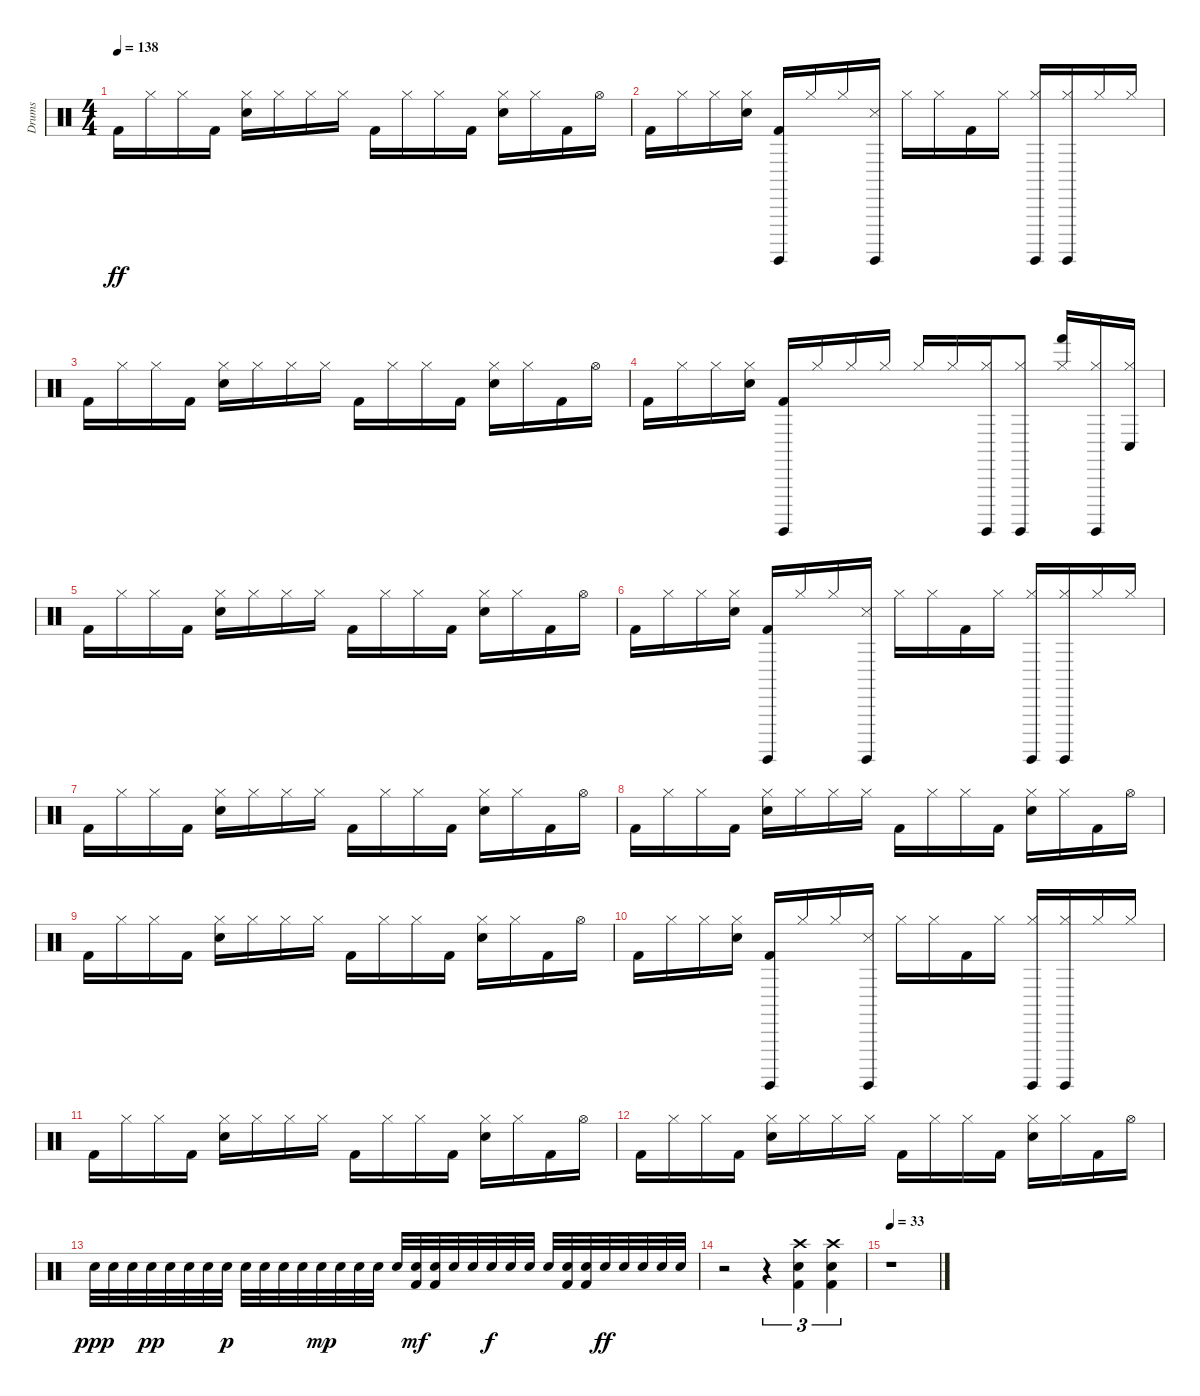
\track ("Drums" "Drums") {instrument percussion}
\staff {score}
\articulation defaults
\ts (4 4)
\tempo 138
\clef neutral
\ks c "Kick (hit) 2".16{dy ff} "Hi-Hat (closed)".16 "Hi-Hat (closed)".16 "Kick (hit) 2".16
("Electric Snare (hit)" "Hi-Hat (closed)").16 "Hi-Hat (closed)".16 "Hi-Hat (closed)".16 "Hi-Hat (closed)".16 "Kick (hit) 2".16 "Hi-Hat (closed)".16 "Hi-Hat (closed)".16 "Kick (hit) 2".16 ("Electric Snare (hit)" "Hi-Hat (closed)").16 "Hi-Hat (closed)".16 "Kick (hit) 2".16 "Hi-Hat (open)".16 |
"Kick (hit) 2".16 "Hi-Hat (closed)".16 "Hi-Hat (closed)".16 ("Electric Snare (hit)" "Hi-Hat (closed)").16 ("Kick (hit) 2" "Surdo (hit)").16 "Hi-Hat (closed)".16 "Hi-Hat (closed)".16 ("Snare (side stick) 3" "Surdo (hit)").16 "Hi-Hat (closed)".16 "Hi-Hat (closed)".16 "Kick (hit) 2".16 "Hi-Hat (closed)".16 ("Hi-Hat (closed)" "Surdo (hit)").16 ("Hi-Hat (closed)" "Surdo (hit)").16 "Hi-Hat (closed)".16 "Hi-Hat (closed)".16 |
"Kick (hit) 2".16 "Hi-Hat (closed)".16 "Hi-Hat (closed)".16 "Kick (hit) 2".16 ("Electric Snare (hit)" "Hi-Hat (closed)").16 "Hi-Hat (closed)".16 "Hi-Hat (closed)".16 "Hi-Hat (closed)".16 "Kick (hit) 2".16 "Hi-Hat (closed)".16 "Hi-Hat (closed)".16 "Kick (hit) 2".16 ("Electric Snare (hit)" "Hi-Hat (closed)").16 "Hi-Hat (closed)".16 "Kick (hit) 2".16 "Hi-Hat (open)".16 |
"Kick (hit) 2".16 "Hi-Hat (closed)".16 "Hi-Hat (closed)".16 ("Electric Snare (hit)" "Hi-Hat (closed)").16 ("Kick (hit) 2" "Surdo (hit)").16 "Hi-Hat (closed)".16 "Hi-Hat (closed)".16 "Hi-Hat (closed)".16 "Hi-Hat (closed)".16 "Hi-Hat (closed)".16 ("Hi-Hat (closed)" "Surdo (hit)").16 ("Hi-Hat (closed)" "Surdo (hit)").8 ("Hi-Hat (closed)" "Hand (hit)").16 ("Hi-Hat (closed)" "Surdo (hit)").16 ("Hi-Hat (closed)" "Conga low (hit)").16 |
"Kick (hit) 2".16 "Hi-Hat (closed)".16 "Hi-Hat (closed)".16 "Kick (hit) 2".16 ("Electric Snare (hit)" "Hi-Hat (closed)").16 "Hi-Hat (closed)".16 "Hi-Hat (closed)".16 "Hi-Hat (closed)".16 "Kick (hit) 2".16 "Hi-Hat (closed)".16 "Hi-Hat (closed)".16 "Kick (hit) 2".16 ("Electric Snare (hit)" "Hi-Hat (closed)").16 "Hi-Hat (closed)".16 "Kick (hit) 2".16 "Hi-Hat (open)".16 |
"Kick (hit) 2".16 "Hi-Hat (closed)".16 "Hi-Hat (closed)".16 ("Electric Snare (hit)" "Hi-Hat (closed)").16 ("Kick (hit) 2" "Surdo (hit)").16 "Hi-Hat (closed)".16 "Hi-Hat (closed)".16 ("Snare (side stick) 3" "Surdo (hit)").16 "Hi-Hat (closed)".16 "Hi-Hat (closed)".16 "Kick (hit) 2".16 "Hi-Hat (closed)".16 ("Hi-Hat (closed)" "Surdo (hit)").16 ("Hi-Hat (closed)" "Surdo (hit)").16 "Hi-Hat (closed)".16 "Hi-Hat (closed)".16 |
"Kick (hit) 2".16 "Hi-Hat (closed)".16 "Hi-Hat (closed)".16 "Kick (hit) 2".16 ("Electric Snare (hit)" "Hi-Hat (closed)").16 "Hi-Hat (closed)".16 "Hi-Hat (closed)".16 "Hi-Hat (closed)".16 "Kick (hit) 2".16 "Hi-Hat (closed)".16 "Hi-Hat (closed)".16 "Kick (hit) 2".16 ("Electric Snare (hit)" "Hi-Hat (closed)").16 "Hi-Hat (closed)".16 "Kick (hit) 2".16 "Hi-Hat (open)".16 |
"Kick (hit) 2".16 "Hi-Hat (closed)".16 "Hi-Hat (closed)".16 "Kick (hit) 2".16 ("Electric Snare (hit)" "Hi-Hat (closed)").16 "Hi-Hat (closed)".16 "Hi-Hat (closed)".16 "Hi-Hat (closed)".16 "Kick (hit) 2".16 "Hi-Hat (closed)".16 "Hi-Hat (closed)".16 "Kick (hit) 2".16 ("Electric Snare (hit)" "Hi-Hat (closed)").16 "Hi-Hat (closed)".16 "Kick (hit) 2".16 "Hi-Hat (open)".16 |
"Kick (hit) 2".16 "Hi-Hat (closed)".16 "Hi-Hat (closed)".16 "Kick (hit) 2".16 ("Electric Snare (hit)" "Hi-Hat (closed)").16 "Hi-Hat (closed)".16 "Hi-Hat (closed)".16 "Hi-Hat (closed)".16 "Kick (hit) 2".16 "Hi-Hat (closed)".16 "Hi-Hat (closed)".16 "Kick (hit) 2".16 ("Electric Snare (hit)" "Hi-Hat (closed)").16 "Hi-Hat (closed)".16 "Kick (hit) 2".16 "Hi-Hat (open)".16 |
"Kick (hit) 2".16 "Hi-Hat (closed)".16 "Hi-Hat (closed)".16 ("Electric Snare (hit)" "Hi-Hat (closed)").16 ("Kick (hit) 2" "Surdo (hit)").16 "Hi-Hat (closed)".16 "Hi-Hat (closed)".16 ("Snare (side stick) 3" "Surdo (hit)").16 "Hi-Hat (closed)".16 "Hi-Hat (closed)".16 "Kick (hit) 2".16 "Hi-Hat (closed)".16 ("Hi-Hat (closed)" "Surdo (hit)").16 ("Hi-Hat (closed)" "Surdo (hit)").16 "Hi-Hat (closed)".16 "Hi-Hat (closed)".16 |
"Kick (hit) 2".16 "Hi-Hat (closed)".16 "Hi-Hat (closed)".16 "Kick (hit) 2".16 ("Electric Snare (hit)" "Hi-Hat (closed)").16 "Hi-Hat (closed)".16 "Hi-Hat (closed)".16 "Hi-Hat (closed)".16 "Kick (hit) 2".16 "Hi-Hat (closed)".16 "Hi-Hat (closed)".16 "Kick (hit) 2".16 ("Electric Snare (hit)" "Hi-Hat (closed)").16 "Hi-Hat (closed)".16 "Kick (hit) 2".16 "Hi-Hat (open)".16 |
"Kick (hit) 2".16 "Hi-Hat (closed)".16 "Hi-Hat (closed)".16 "Kick (hit) 2".16 ("Electric Snare (hit)" "Hi-Hat (closed)").16 "Hi-Hat (closed)".16 "Hi-Hat (closed)".16 "Hi-Hat (closed)".16 "Kick (hit) 2".16 "Hi-Hat (closed)".16 "Hi-Hat (closed)".16 "Kick (hit) 2".16 ("Electric Snare (hit)" "Hi-Hat (closed)").16 "Hi-Hat (closed)".16 "Kick (hit) 2".16 "Hi-Hat (open)".16 |
"Electric Snare (hit)".32{dy ppp} "Electric Snare (hit)".32 "Electric Snare (hit)".32 "Electric Snare (hit)".32{dy pp} "Electric Snare (hit)".32 "Electric Snare (hit)".32 "Electric Snare (hit)".32 "Electric Snare (hit)".32{dy p} "Electric Snare (hit)".32 "Electric Snare (hit)".32 "Electric Snare (hit)".32 "Electric Snare (hit)".32 "Electric Snare (hit)".32{dy mp} "Electric Snare (hit)".32 "Electric Snare (hit)".32 "Electric Snare (hit)".32 "Electric Snare (hit)".32 ("Electric Snare (hit)" "Kick (hit) 2").32{dy mf} ("Electric Snare (hit)" "Kick (hit) 2").32 "Electric Snare (hit)".32 "Electric Snare (hit)".32 "Electric Snare (hit)".32{dy f} "Electric Snare (hit)".32 "Electric Snare (hit)".32 "Electric Snare (hit)".32 ("Electric Snare (hit)" "Kick (hit) 2").32 ("Electric Snare (hit)" "Kick (hit) 2").32 "Electric Snare (hit)".32{dy ff} "Electric Snare (hit)".32 "Electric Snare (hit)".32 "Electric Snare (hit)".32 "Electric Snare (hit)".32 |
r.2 r.4{tu (3 2)} ("Kick (hit) 2" "Electric Snare (hit)" "Crash high (hit)").4{tu (3 2)} ("Kick (hit) 2" "Electric Snare (hit)" "Crash high (hit)").4{tu (3 2)} |
\tempo 33
r.1
